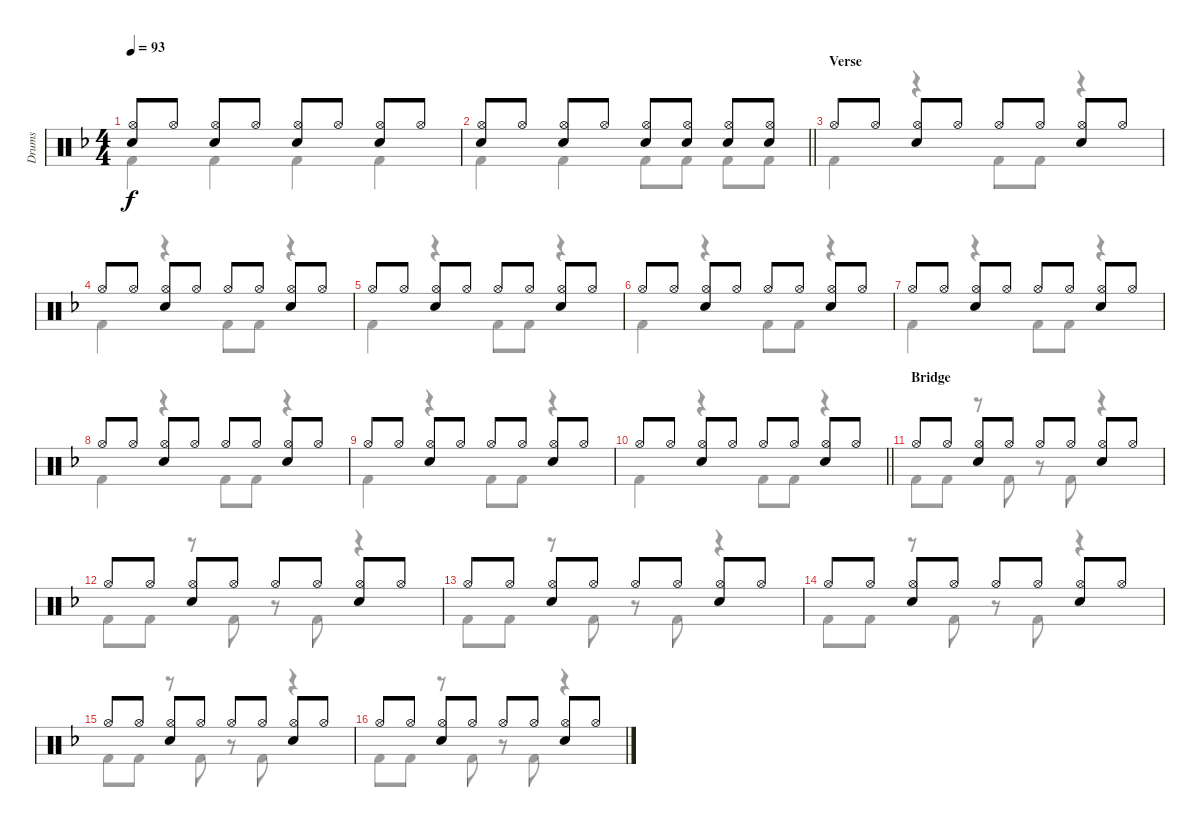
\track ("Drums" "Drums") {instrument percussion}
\staff {score}
\articulation defaults
\voice
\ts (4 4)
\tempo 93
\clef neutral
\ks f
("Hi-Hat (open)" "Electric Snare (hit)").8{dy f} "Hi-Hat (open)".8 ("Hi-Hat (open)" "Electric Snare (hit)").8 "Hi-Hat (open)".8 ("Hi-Hat (open)" "Electric Snare (hit)").8 "Hi-Hat (open)".8 ("Hi-Hat (open)" "Electric Snare (hit)").8 "Hi-Hat (open)".8 |
\barLineRight lightlight
("Hi-Hat (open)" "Electric Snare (hit)").8 "Hi-Hat (open)".8 ("Hi-Hat (open)" "Electric Snare (hit)").8 "Hi-Hat (open)".8 ("Hi-Hat (open)" "Electric Snare (hit)").8 ("Hi-Hat (open)" "Electric Snare (hit)").8 ("Hi-Hat (open)" "Electric Snare (hit)").8 ("Hi-Hat (open)" "Electric Snare (hit)").8 |
\section ("" "Verse")
"Hi-Hat (open)".8 "Hi-Hat (open)".8 ("Hi-Hat (open)" "Electric Snare (hit)").8 "Hi-Hat (open)".8 "Hi-Hat (open)".8 "Hi-Hat (open)".8 ("Hi-Hat (open)" "Electric Snare (hit)").8 "Hi-Hat (open)".8 |
"Hi-Hat (open)".8 "Hi-Hat (open)".8 ("Hi-Hat (open)" "Electric Snare (hit)").8 "Hi-Hat (open)".8 "Hi-Hat (open)".8 "Hi-Hat (open)".8 ("Hi-Hat (open)" "Electric Snare (hit)").8 "Hi-Hat (open)".8 |
"Hi-Hat (open)".8 "Hi-Hat (open)".8 ("Hi-Hat (open)" "Electric Snare (hit)").8 "Hi-Hat (open)".8 "Hi-Hat (open)".8 "Hi-Hat (open)".8 ("Hi-Hat (open)" "Electric Snare (hit)").8 "Hi-Hat (open)".8 |
"Hi-Hat (open)".8 "Hi-Hat (open)".8 ("Hi-Hat (open)" "Electric Snare (hit)").8 "Hi-Hat (open)".8 "Hi-Hat (open)".8 "Hi-Hat (open)".8 ("Hi-Hat (open)" "Electric Snare (hit)").8 "Hi-Hat (open)".8 |
"Hi-Hat (open)".8 "Hi-Hat (open)".8 ("Hi-Hat (open)" "Electric Snare (hit)").8 "Hi-Hat (open)".8 "Hi-Hat (open)".8 "Hi-Hat (open)".8 ("Hi-Hat (open)" "Electric Snare (hit)").8 "Hi-Hat (open)".8 |
"Hi-Hat (open)".8 "Hi-Hat (open)".8 ("Hi-Hat (open)" "Electric Snare (hit)").8 "Hi-Hat (open)".8 "Hi-Hat (open)".8 "Hi-Hat (open)".8 ("Hi-Hat (open)" "Electric Snare (hit)").8 "Hi-Hat (open)".8 |
"Hi-Hat (open)".8 "Hi-Hat (open)".8 ("Hi-Hat (open)" "Electric Snare (hit)").8 "Hi-Hat (open)".8 "Hi-Hat (open)".8 "Hi-Hat (open)".8 ("Hi-Hat (open)" "Electric Snare (hit)").8 "Hi-Hat (open)".8 |
\barLineRight lightlight "Hi-Hat (open)".8 "Hi-Hat (open)".8
("Hi-Hat (open)" "Electric Snare (hit)").8 "Hi-Hat (open)".8 "Hi-Hat (open)".8 "Hi-Hat (open)".8 ("Hi-Hat (open)" "Electric Snare (hit)").8 "Hi-Hat (open)".8 |
\section ("" "Bridge")
"Hi-Hat (open)".8 "Hi-Hat (open)".8 ("Hi-Hat (open)" "Electric Snare (hit)").8 "Hi-Hat (open)".8 "Hi-Hat (open)".8 "Hi-Hat (open)".8 ("Hi-Hat (open)" "Electric Snare (hit)").8 "Hi-Hat (open)".8 |
"Hi-Hat (open)".8 "Hi-Hat (open)".8 ("Hi-Hat (open)" "Electric Snare (hit)").8 "Hi-Hat (open)".8 "Hi-Hat (open)".8 "Hi-Hat (open)".8 ("Hi-Hat (open)" "Electric Snare (hit)").8 "Hi-Hat (open)".8 |
"Hi-Hat (open)".8 "Hi-Hat (open)".8 ("Hi-Hat (open)" "Electric Snare (hit)").8 "Hi-Hat (open)".8 "Hi-Hat (open)".8 "Hi-Hat (open)".8 ("Hi-Hat (open)" "Electric Snare (hit)").8 "Hi-Hat (open)".8 |
"Hi-Hat (open)".8 "Hi-Hat (open)".8 ("Hi-Hat (open)" "Electric Snare (hit)").8 "Hi-Hat (open)".8 "Hi-Hat (open)".8 "Hi-Hat (open)".8 ("Hi-Hat (open)" "Electric Snare (hit)").8 "Hi-Hat (open)".8 |
"Hi-Hat (open)".8 "Hi-Hat (open)".8 ("Hi-Hat (open)" "Electric Snare (hit)").8 "Hi-Hat (open)".8 "Hi-Hat (open)".8 "Hi-Hat (open)".8 ("Hi-Hat (open)" "Electric Snare (hit)").8 "Hi-Hat (open)".8 |
"Hi-Hat (open)".8 "Hi-Hat (open)".8 ("Hi-Hat (open)" "Electric Snare (hit)").8 "Hi-Hat (open)".8 "Hi-Hat (open)".8 "Hi-Hat (open)".8 ("Hi-Hat (open)" "Electric Snare (hit)").8 "Hi-Hat (open)".8
\voice
\clef neutral
\ottava regular
\simile none
\ks f "Kick (hit) 2".4{dy f} "Kick (hit) 2".4 "Kick (hit) 2".4 "Kick (hit) 2".4
|
\barLineRight lightlight "Kick (hit) 2".4 "Kick (hit) 2".4 "Kick (hit) 2".8 "Kick (hit) 2".8 "Kick (hit) 2".8 "Kick (hit) 2".8
|
"Kick (hit) 2".4 r.4 "Kick (hit) 2".8 "Kick (hit) 2".8 r.4 |
"Kick (hit) 2".4 r.4 "Kick (hit) 2".8 "Kick (hit) 2".8 r.4 |
"Kick (hit) 2".4 r.4 "Kick (hit) 2".8 "Kick (hit) 2".8 r.4 |
"Kick (hit) 2".4 r.4 "Kick (hit) 2".8 "Kick (hit) 2".8 r.4 |
"Kick (hit) 2".4 r.4 "Kick (hit) 2".8 "Kick (hit) 2".8 r.4 |
"Kick (hit) 2".4 r.4 "Kick (hit) 2".8 "Kick (hit) 2".8 r.4 |
"Kick (hit) 2".4 r.4 "Kick (hit) 2".8 "Kick (hit) 2".8 r.4 |
\barLineRight lightlight "Kick (hit) 2".4
r.4 "Kick (hit) 2".8 "Kick (hit) 2".8 r.4 |
"Kick (hit) 2".8 "Kick (hit) 2".8 r.8 "Kick (hit) 2".8 r.8 "Kick (hit) 2".8 r.4 |
"Kick (hit) 2".8 "Kick (hit) 2".8 r.8 "Kick (hit) 2".8 r.8 "Kick (hit) 2".8 r.4 |
"Kick (hit) 2".8 "Kick (hit) 2".8 r.8 "Kick (hit) 2".8 r.8 "Kick (hit) 2".8 r.4 |
"Kick (hit) 2".8 "Kick (hit) 2".8 r.8 "Kick (hit) 2".8 r.8 "Kick (hit) 2".8 r.4 |
"Kick (hit) 2".8 "Kick (hit) 2".8 r.8 "Kick (hit) 2".8 r.8 "Kick (hit) 2".8 r.4 |
"Kick (hit) 2".8 "Kick (hit) 2".8 r.8 "Kick (hit) 2".8 r.8 "Kick (hit) 2".8 r.4
